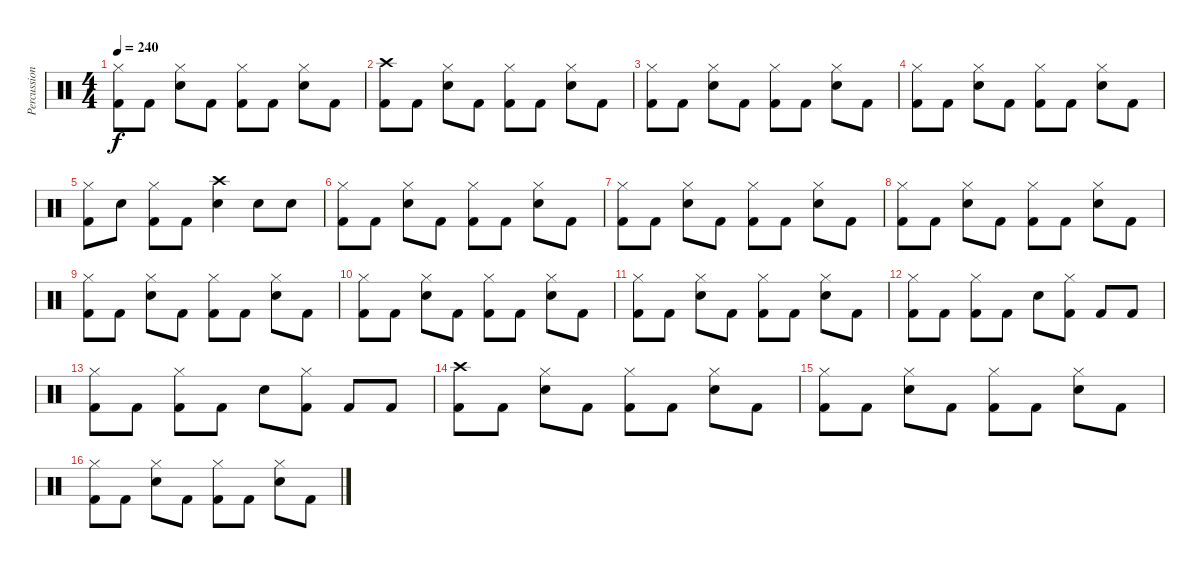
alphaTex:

\track ("Percussion" "Percussion") {instrument percussion}
\staff {score}
\articulation defaults
\ts (4 4)
\tempo 240
\clef neutral
\ks c
("Kick (hit) 2" "Hi-Hat (closed)").8{dy f} "Kick (hit) 2".8 ("Snare (hit) 2" "Hi-Hat (closed)").8 "Kick (hit) 2".8 ("Kick (hit) 2" "Hi-Hat (closed)").8 "Kick (hit) 2".8 ("Snare (hit) 2" "Hi-Hat (closed)").8 "Kick (hit) 2".8 |
("Kick (hit) 2" "Crash high (hit)").8 "Kick (hit) 2".8 ("Snare (hit) 2" "Hi-Hat (closed)").8 "Kick (hit) 2".8 ("Kick (hit) 2" "Hi-Hat (closed)").8 "Kick (hit) 2".8 ("Snare (hit) 2" "Hi-Hat (closed)").8 "Kick (hit) 2".8 |
("Kick (hit) 2" "Hi-Hat (closed)").8 "Kick (hit) 2".8 ("Snare (hit) 2" "Hi-Hat (closed)").8 "Kick (hit) 2".8 ("Kick (hit) 2" "Hi-Hat (closed)").8 "Kick (hit) 2".8 ("Snare (hit) 2" "Hi-Hat (closed)").8 "Kick (hit) 2".8 |
("Kick (hit) 2" "Hi-Hat (closed)").8 "Kick (hit) 2".8 ("Snare (hit) 2" "Hi-Hat (closed)").8 "Kick (hit) 2".8 ("Kick (hit) 2" "Hi-Hat (closed)").8 "Kick (hit) 2".8 ("Snare (hit) 2" "Hi-Hat (closed)").8 "Kick (hit) 2".8 |
("Kick (hit) 2" "Hi-Hat (closed)").8 "Snare (hit) 2".8 ("Kick (hit) 2" "Hi-Hat (closed)").8 "Kick (hit) 2".8 ("Snare (hit) 2" "Crash high (hit)").4 "Snare (hit) 2".8 "Snare (hit) 2".8 |
("Kick (hit) 2" "Hi-Hat (closed)").8 "Kick (hit) 2".8 ("Snare (hit) 2" "Hi-Hat (closed)").8 "Kick (hit) 2".8 ("Kick (hit) 2" "Hi-Hat (closed)").8 "Kick (hit) 2".8 ("Snare (hit) 2" "Hi-Hat (closed)").8 "Kick (hit) 2".8 |
("Kick (hit) 2" "Hi-Hat (closed)").8 "Kick (hit) 2".8 ("Snare (hit) 2" "Hi-Hat (closed)").8 "Kick (hit) 2".8 ("Kick (hit) 2" "Hi-Hat (closed)").8 "Kick (hit) 2".8 ("Snare (hit) 2" "Hi-Hat (closed)").8 "Kick (hit) 2".8 |
("Kick (hit) 2" "Hi-Hat (closed)").8 "Kick (hit) 2".8 ("Snare (hit) 2" "Hi-Hat (closed)").8 "Kick (hit) 2".8 ("Kick (hit) 2" "Hi-Hat (closed)").8 "Kick (hit) 2".8 ("Snare (hit) 2" "Hi-Hat (closed)").8 "Kick (hit) 2".8 |
("Kick (hit) 2" "Hi-Hat (closed)").8 "Kick (hit) 2".8 ("Snare (hit) 2" "Hi-Hat (closed)").8 "Kick (hit) 2".8 ("Kick (hit) 2" "Hi-Hat (closed)").8 "Kick (hit) 2".8 ("Snare (hit) 2" "Hi-Hat (closed)").8 "Kick (hit) 2".8 |
("Kick (hit) 2" "Hi-Hat (closed)").8 "Kick (hit) 2".8 ("Snare (hit) 2" "Hi-Hat (closed)").8 "Kick (hit) 2".8 ("Kick (hit) 2" "Hi-Hat (closed)").8 "Kick (hit) 2".8 ("Snare (hit) 2" "Hi-Hat (closed)").8 "Kick (hit) 2".8 |
("Kick (hit) 2" "Hi-Hat (closed)").8 "Kick (hit) 2".8 ("Snare (hit) 2" "Hi-Hat (closed)").8 "Kick (hit) 2".8 ("Kick (hit) 2" "Hi-Hat (closed)").8 "Kick (hit) 2".8 ("Snare (hit) 2" "Hi-Hat (closed)").8 "Kick (hit) 2".8 |
("Kick (hit) 2" "Hi-Hat (closed)").8 "Kick (hit) 2".8 ("Kick (hit) 2" "Hi-Hat (closed)").8 "Kick (hit) 2".8 "Snare (hit) 2".8 ("Kick (hit) 2" "Hi-Hat (closed)").8 "Kick (hit) 2".8 "Kick (hit) 2".8 |
("Kick (hit) 2" "Hi-Hat (closed)").8 "Kick (hit) 2".8 ("Kick (hit) 2" "Hi-Hat (closed)").8 "Kick (hit) 2".8 "Snare (hit) 2".8 ("Kick (hit) 2" "Hi-Hat (closed)").8 "Kick (hit) 2".8 "Kick (hit) 2".8 |
("Kick (hit) 2" "Crash high (hit)").8 "Kick (hit) 2".8 ("Snare (hit) 2" "Hi-Hat (closed)").8 "Kick (hit) 2".8 ("Kick (hit) 2" "Hi-Hat (closed)").8 "Kick (hit) 2".8 ("Snare (hit) 2" "Hi-Hat (closed)").8 "Kick (hit) 2".8 |
("Kick (hit) 2" "Hi-Hat (closed)").8 "Kick (hit) 2".8 ("Snare (hit) 2" "Hi-Hat (closed)").8 "Kick (hit) 2".8 ("Kick (hit) 2" "Hi-Hat (closed)").8 "Kick (hit) 2".8 ("Snare (hit) 2" "Hi-Hat (closed)").8 "Kick (hit) 2".8 |
("Kick (hit) 2" "Hi-Hat (closed)").8 "Kick (hit) 2".8 ("Snare (hit) 2" "Hi-Hat (closed)").8 "Kick (hit) 2".8 ("Kick (hit) 2" "Hi-Hat (closed)").8 "Kick (hit) 2".8 ("Snare (hit) 2" "Hi-Hat (closed)").8 "Kick (hit) 2".8
